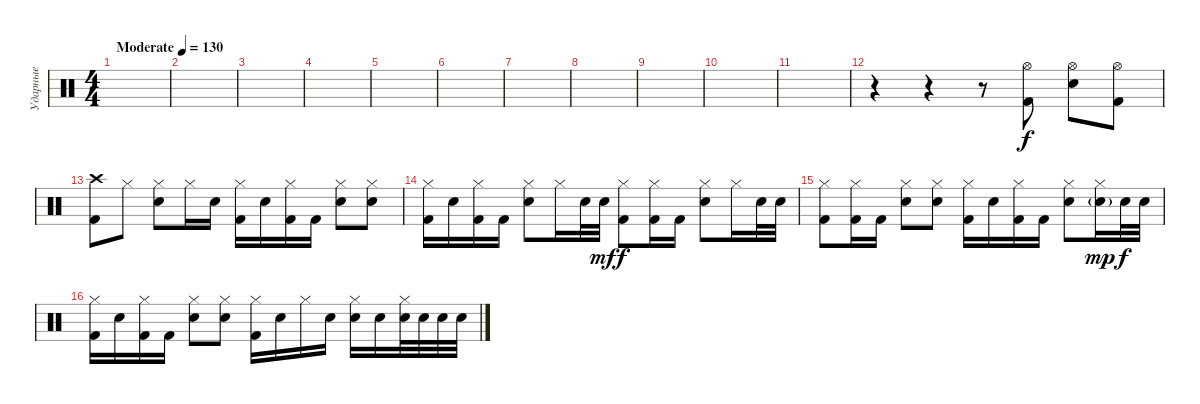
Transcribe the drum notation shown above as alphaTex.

\track ("Ударные" "Ударные") {instrument percussion}
\staff {score}
\articulation defaults
\ts (4 4)
\tempo (130 "Moderate")
\clef neutral
\ks c
|
|
|
|
|
|
|
|
|
|
|
r.4 r.4 r.8 ("Kick (hit) 2" "Hi-Hat (open)").8 ("Electric Snare (hit)" "Hi-Hat (open)").8 ("Kick (hit) 2" "Hi-Hat (open)").8 |
("Kick (hit) 2" "Crash high (hit)").8 "Hi-Hat (closed)".8 ("Electric Snare (hit)" "Hi-Hat (closed)").8 "Hi-Hat (closed)".16 "Electric Snare (hit)".16 ("Kick (hit) 2" "Hi-Hat (closed)").16 "Electric Snare (hit)".16 ("Kick (hit) 2" "Hi-Hat (closed)").16 "Kick (hit) 2".16 ("Electric Snare (hit)" "Hi-Hat (closed)").8 ("Electric Snare (hit)" "Hi-Hat (closed)").8 |
("Kick (hit) 2" "Hi-Hat (closed)").16 "Electric Snare (hit)".16 ("Kick (hit) 2" "Hi-Hat (closed)").16 "Kick (hit) 2".16 ("Electric Snare (hit)" "Hi-Hat (closed)").8 "Hi-Hat (closed)".16 "Electric Snare (hit)".32 "Electric Snare (hit)".32{dy mf} ("Kick (hit) 2" "Hi-Hat (closed)").8{dy f} ("Kick (hit) 2" "Hi-Hat (closed)").16 "Kick (hit) 2".16 ("Electric Snare (hit)" "Hi-Hat (closed)").8 "Hi-Hat (closed)".16 "Electric Snare (hit)".32 "Electric Snare (hit)".32 |
("Kick (hit) 2" "Hi-Hat (closed)").8 ("Kick (hit) 2" "Hi-Hat (closed)").16 "Kick (hit) 2".16 ("Electric Snare (hit)" "Hi-Hat (closed)").8 ("Electric Snare (hit)" "Hi-Hat (closed)").8 ("Kick (hit) 2" "Hi-Hat (closed)").16 "Electric Snare (hit)".16 ("Kick (hit) 2" "Hi-Hat (closed)").16 "Kick (hit) 2".16 ("Electric Snare (hit)" "Hi-Hat (closed)").8 ("Electric Snare (hit)"{g} "Hi-Hat (closed)").16{dy mp} "Electric Snare (hit)".32{dy f} "Electric Snare (hit)".32 |
("Kick (hit) 2" "Hi-Hat (closed)").16 "Electric Snare (hit)".16 ("Kick (hit) 2" "Hi-Hat (closed)").16 "Kick (hit) 2".16 ("Electric Snare (hit)" "Hi-Hat (closed)").8 ("Electric Snare (hit)" "Hi-Hat (closed)").8 ("Kick (hit) 2" "Hi-Hat (closed)").16 "Electric Snare (hit)".16 "Hi-Hat (closed)".16 "Electric Snare (hit)".16 ("Electric Snare (hit)" "Hi-Hat (closed)").16 "Electric Snare (hit)".16 ("Electric Snare (hit)" "Hi-Hat (closed)").32 "Electric Snare (hit)".32 "Electric Snare (hit)".32 "Electric Snare (hit)".32
